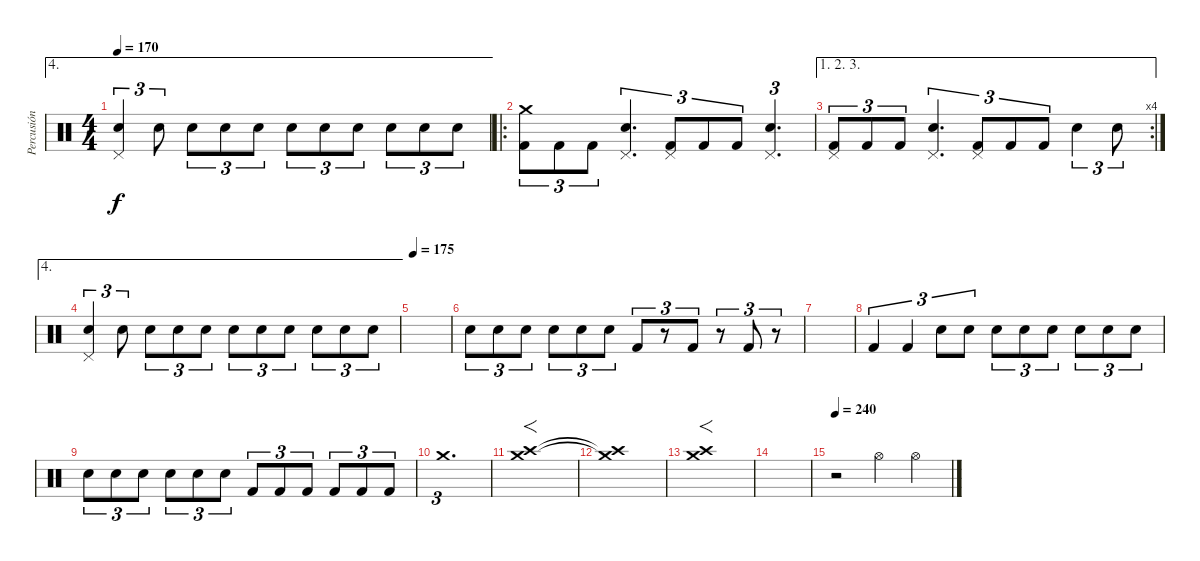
\track ("Percusión" "Percusión") {instrument percussion}
\staff {score}
\articulation defaults
\ae 4
\ts (4 4)
\tempo 170
\clef neutral
\ks c
("Electric Snare (hit)" "Pedal Hi-Hat (hit)").4{tu (3 2) dy f} "Electric Snare (hit)".8{tu (3 2)} "Electric Snare (hit)".8{tu (3 2)} "Electric Snare (hit)".8{tu (3 2)} "Electric Snare (hit)".8{tu (3 2)} "Electric Snare (hit)".8{tu (3 2)} "Electric Snare (hit)".8{tu (3 2)} "Electric Snare (hit)".8{tu (3 2)} "Electric Snare (hit)".8{tu (3 2)} "Electric Snare (hit)".8{tu (3 2)} "Electric Snare (hit)".8{tu (3 2)} |
\ro
("Kick (hit) 2" "Crash medium (hit)").8{tu (3 2)} "Kick (hit) 2".8{tu (3 2)} "Kick (hit) 2".8{tu (3 2)} ("Electric Snare (hit)" "Pedal Hi-Hat (hit)").4{d tu (3 2)} ("Kick (hit) 2" "Pedal Hi-Hat (hit)").8{tu (3 2)} "Kick (hit) 2".8{tu (3 2)} "Kick (hit) 2".8{tu (3 2)} ("Electric Snare (hit)" "Pedal Hi-Hat (hit)").4{d tu (3 2)} |
\ae (1 2 3)
\rc 4
("Kick (hit) 2" "Pedal Hi-Hat (hit)").8{tu (3 2)} "Kick (hit) 2".8{tu (3 2)} "Kick (hit) 2".8{tu (3 2)} ("Electric Snare (hit)" "Pedal Hi-Hat (hit)").4{d tu (3 2)} ("Kick (hit) 2" "Pedal Hi-Hat (hit)").8{tu (3 2)} "Kick (hit) 2".8{tu (3 2)} "Kick (hit) 2".8{tu (3 2)} "Electric Snare (hit)".4{tu (3 2)} "Electric Snare (hit)".8{tu (3 2)} |
\ae 4
("Electric Snare (hit)" "Pedal Hi-Hat (hit)").4{tu (3 2)} "Electric Snare (hit)".8{tu (3 2)} "Electric Snare (hit)".8{tu (3 2)} "Electric Snare (hit)".8{tu (3 2)} "Electric Snare (hit)".8{tu (3 2)} "Electric Snare (hit)".8{tu (3 2)} "Electric Snare (hit)".8{tu (3 2)} "Electric Snare (hit)".8{tu (3 2)} "Electric Snare (hit)".8{tu (3 2)} "Electric Snare (hit)".8{tu (3 2)} "Electric Snare (hit)".8{tu (3 2)} |
\tempo 175
|
"Electric Snare (hit)".8{tu (3 2)} "Electric Snare (hit)".8{tu (3 2)} "Electric Snare (hit)".8{tu (3 2)} "Electric Snare (hit)".8{tu (3 2)} "Electric Snare (hit)".8{tu (3 2)} "Electric Snare (hit)".8{tu (3 2)} "Kick (hit) 2".8{tu (3 2)} r.8{tu (3 2)} "Kick (hit) 2".8{tu (3 2)} r.8{tu (3 2)} "Kick (hit) 2".8{tu (3 2)} r.8{tu (3 2)} |
|
"Kick (hit) 2".4{tu (3 2)} "Kick (hit) 2".4{tu (3 2)} "Electric Snare (hit)".8{tu (3 2)} "Electric Snare (hit)".8{tu (3 2)} "Electric Snare (hit)".8{tu (3 2)} "Electric Snare (hit)".8{tu (3 2)} "Electric Snare (hit)".8{tu (3 2)} "Electric Snare (hit)".8{tu (3 2)} "Electric Snare (hit)".8{tu (3 2)} "Electric Snare (hit)".8{tu (3 2)} |
"Electric Snare (hit)".8{tu (3 2)} "Electric Snare (hit)".8{tu (3 2)} "Electric Snare (hit)".8{tu (3 2)} "Electric Snare (hit)".8{tu (3 2)} "Electric Snare (hit)".8{tu (3 2)} "Electric Snare (hit)".8{tu (3 2)} "Kick (hit) 2".8{tu (3 2)} "Kick (hit) 2".8{tu (3 2)} "Kick (hit) 2".8{tu (3 2)} "Kick (hit) 2".8{tu (3 2)} "Kick (hit) 2".8{tu (3 2)} "Kick (hit) 2".8{tu (3 2)} |
"Crash medium (hit)".1{d tu (3 2)} |
("Crash high (hit)" "Crash medium (hit)").1{f} |
("Crash high (hit)"{t} "Crash medium (hit)"{t}).1 |
("Crash high (hit)" "Crash medium (hit)").1{f} |
|
\tempo 240
r.2 "Hi-Hat (open)".4 "Hi-Hat (open)".4
